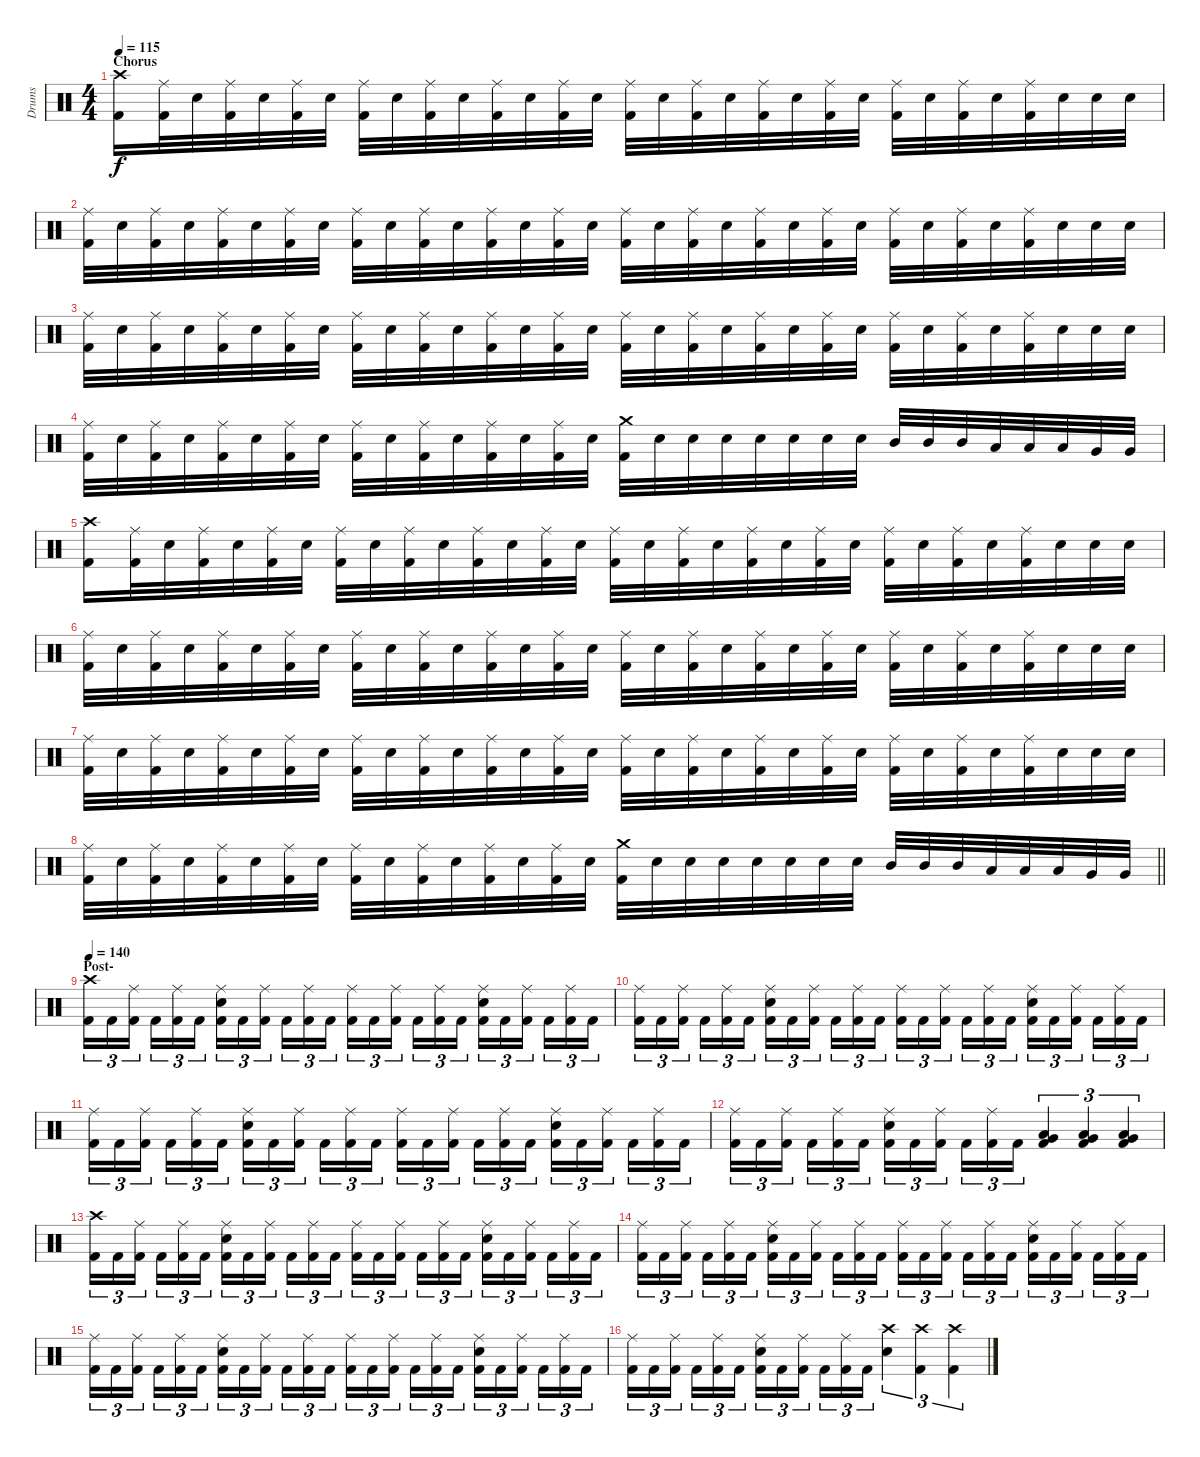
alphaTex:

\track ("Drums" "Drums") {instrument percussion}
\staff {score}
\articulation defaults
\ts (4 4)
\section ("" "Chorus")
\tempo 115
\clef neutral
\ks c
("Crash high (hit)" "Kick (hit) 2").16{dy f} ("Ride (middle)" "Kick (hit) 2").32 "Electric Snare (hit)".32 ("Ride (middle)" "Kick (hit) 2").32 "Electric Snare (hit)".32 ("Ride (middle)" "Kick (hit) 2").32 "Electric Snare (hit)".32 ("Ride (middle)" "Kick (hit) 2").32 "Electric Snare (hit)".32 ("Ride (middle)" "Kick (hit) 2").32 "Electric Snare (hit)".32 ("Ride (middle)" "Kick (hit) 2").32 "Electric Snare (hit)".32 ("Ride (middle)" "Kick (hit) 2").32 "Electric Snare (hit)".32 ("Ride (middle)" "Kick (hit) 2").32 "Electric Snare (hit)".32 ("Ride (middle)" "Kick (hit) 2").32 "Electric Snare (hit)".32 ("Ride (middle)" "Kick (hit) 2").32 "Electric Snare (hit)".32 ("Ride (middle)" "Kick (hit) 2").32 "Electric Snare (hit)".32 ("Ride (middle)" "Kick (hit) 2").32 "Electric Snare (hit)".32 ("Ride (middle)" "Kick (hit) 2").32 "Electric Snare (hit)".32 ("Ride (middle)" "Kick (hit) 2").32 "Electric Snare (hit)".32 "Electric Snare (hit)".32 "Electric Snare (hit)".32 |
("Ride (middle)" "Kick (hit) 2").32 "Electric Snare (hit)".32 ("Ride (middle)" "Kick (hit) 2").32 "Electric Snare (hit)".32 ("Ride (middle)" "Kick (hit) 2").32 "Electric Snare (hit)".32 ("Ride (middle)" "Kick (hit) 2").32 "Electric Snare (hit)".32 ("Ride (middle)" "Kick (hit) 2").32 "Electric Snare (hit)".32 ("Ride (middle)" "Kick (hit) 2").32 "Electric Snare (hit)".32 ("Ride (middle)" "Kick (hit) 2").32 "Electric Snare (hit)".32 ("Ride (middle)" "Kick (hit) 2").32 "Electric Snare (hit)".32 ("Ride (middle)" "Kick (hit) 2").32 "Electric Snare (hit)".32 ("Ride (middle)" "Kick (hit) 2").32 "Electric Snare (hit)".32 ("Ride (middle)" "Kick (hit) 2").32 "Electric Snare (hit)".32 ("Ride (middle)" "Kick (hit) 2").32 "Electric Snare (hit)".32 ("Ride (middle)" "Kick (hit) 2").32 "Electric Snare (hit)".32 ("Ride (middle)" "Kick (hit) 2").32 "Electric Snare (hit)".32 ("Ride (middle)" "Kick (hit) 2").32 "Electric Snare (hit)".32 "Electric Snare (hit)".32 "Electric Snare (hit)".32 |
("Ride (middle)" "Kick (hit) 2").32 "Electric Snare (hit)".32 ("Ride (middle)" "Kick (hit) 2").32 "Electric Snare (hit)".32 ("Ride (middle)" "Kick (hit) 2").32 "Electric Snare (hit)".32 ("Ride (middle)" "Kick (hit) 2").32 "Electric Snare (hit)".32 ("Ride (middle)" "Kick (hit) 2").32 "Electric Snare (hit)".32 ("Ride (middle)" "Kick (hit) 2").32 "Electric Snare (hit)".32 ("Ride (middle)" "Kick (hit) 2").32 "Electric Snare (hit)".32 ("Ride (middle)" "Kick (hit) 2").32 "Electric Snare (hit)".32 ("Ride (middle)" "Kick (hit) 2").32 "Electric Snare (hit)".32 ("Ride (middle)" "Kick (hit) 2").32 "Electric Snare (hit)".32 ("Ride (middle)" "Kick (hit) 2").32 "Electric Snare (hit)".32 ("Ride (middle)" "Kick (hit) 2").32 "Electric Snare (hit)".32 ("Ride (middle)" "Kick (hit) 2").32 "Electric Snare (hit)".32 ("Ride (middle)" "Kick (hit) 2").32 "Electric Snare (hit)".32 ("Ride (middle)" "Kick (hit) 2").32 "Electric Snare (hit)".32 "Electric Snare (hit)".32 "Electric Snare (hit)".32 |
("Ride (middle)" "Kick (hit) 2").32 "Electric Snare (hit)".32 ("Ride (middle)" "Kick (hit) 2").32 "Electric Snare (hit)".32 ("Ride (middle)" "Kick (hit) 2").32 "Electric Snare (hit)".32 ("Ride (middle)" "Kick (hit) 2").32 "Electric Snare (hit)".32 ("Ride (middle)" "Kick (hit) 2").32 "Electric Snare (hit)".32 ("Ride (middle)" "Kick (hit) 2").32 "Electric Snare (hit)".32 ("Ride (middle)" "Kick (hit) 2").32 "Electric Snare (hit)".32 ("Ride (middle)" "Kick (hit) 2").32 "Electric Snare (hit)".32 ("Crash medium (hit)" "Kick (hit) 2").32 "Electric Snare (hit)".32 "Electric Snare (hit)".32 "Electric Snare (hit)".32 "Electric Snare (hit)".32 "Electric Snare (hit)".32 "Electric Snare (hit)".32 "Electric Snare (hit)".32 "Mid Tom (hit)".32 "Mid Tom (hit)".32 "Mid Tom (hit)".32 "Low Tom (hit)".32 "Low Tom (hit)".32 "Low Tom (hit)".32 "Very Low Tom (hit)".32 "Very Low Tom (hit)".32 |
("Crash high (hit)" "Kick (hit) 2").16 ("Ride (middle)" "Kick (hit) 2").32 "Electric Snare (hit)".32 ("Ride (middle)" "Kick (hit) 2").32 "Electric Snare (hit)".32 ("Ride (middle)" "Kick (hit) 2").32 "Electric Snare (hit)".32 ("Ride (middle)" "Kick (hit) 2").32 "Electric Snare (hit)".32 ("Ride (middle)" "Kick (hit) 2").32 "Electric Snare (hit)".32 ("Ride (middle)" "Kick (hit) 2").32 "Electric Snare (hit)".32 ("Ride (middle)" "Kick (hit) 2").32 "Electric Snare (hit)".32 ("Ride (middle)" "Kick (hit) 2").32 "Electric Snare (hit)".32 ("Ride (middle)" "Kick (hit) 2").32 "Electric Snare (hit)".32 ("Ride (middle)" "Kick (hit) 2").32 "Electric Snare (hit)".32 ("Ride (middle)" "Kick (hit) 2").32 "Electric Snare (hit)".32 ("Ride (middle)" "Kick (hit) 2").32 "Electric Snare (hit)".32 ("Ride (middle)" "Kick (hit) 2").32 "Electric Snare (hit)".32 ("Ride (middle)" "Kick (hit) 2").32 "Electric Snare (hit)".32 "Electric Snare (hit)".32 "Electric Snare (hit)".32 |
("Ride (middle)" "Kick (hit) 2").32 "Electric Snare (hit)".32 ("Ride (middle)" "Kick (hit) 2").32 "Electric Snare (hit)".32 ("Ride (middle)" "Kick (hit) 2").32 "Electric Snare (hit)".32 ("Ride (middle)" "Kick (hit) 2").32 "Electric Snare (hit)".32 ("Ride (middle)" "Kick (hit) 2").32 "Electric Snare (hit)".32 ("Ride (middle)" "Kick (hit) 2").32 "Electric Snare (hit)".32 ("Ride (middle)" "Kick (hit) 2").32 "Electric Snare (hit)".32 ("Ride (middle)" "Kick (hit) 2").32 "Electric Snare (hit)".32 ("Ride (middle)" "Kick (hit) 2").32 "Electric Snare (hit)".32 ("Ride (middle)" "Kick (hit) 2").32 "Electric Snare (hit)".32 ("Ride (middle)" "Kick (hit) 2").32 "Electric Snare (hit)".32 ("Ride (middle)" "Kick (hit) 2").32 "Electric Snare (hit)".32 ("Ride (middle)" "Kick (hit) 2").32 "Electric Snare (hit)".32 ("Ride (middle)" "Kick (hit) 2").32 "Electric Snare (hit)".32 ("Ride (middle)" "Kick (hit) 2").32 "Electric Snare (hit)".32 "Electric Snare (hit)".32 "Electric Snare (hit)".32 |
("Ride (middle)" "Kick (hit) 2").32 "Electric Snare (hit)".32 ("Ride (middle)" "Kick (hit) 2").32 "Electric Snare (hit)".32 ("Ride (middle)" "Kick (hit) 2").32 "Electric Snare (hit)".32 ("Ride (middle)" "Kick (hit) 2").32 "Electric Snare (hit)".32 ("Ride (middle)" "Kick (hit) 2").32 "Electric Snare (hit)".32 ("Ride (middle)" "Kick (hit) 2").32 "Electric Snare (hit)".32 ("Ride (middle)" "Kick (hit) 2").32 "Electric Snare (hit)".32 ("Ride (middle)" "Kick (hit) 2").32 "Electric Snare (hit)".32 ("Ride (middle)" "Kick (hit) 2").32 "Electric Snare (hit)".32 ("Ride (middle)" "Kick (hit) 2").32 "Electric Snare (hit)".32 ("Ride (middle)" "Kick (hit) 2").32 "Electric Snare (hit)".32 ("Ride (middle)" "Kick (hit) 2").32 "Electric Snare (hit)".32 ("Ride (middle)" "Kick (hit) 2").32 "Electric Snare (hit)".32 ("Ride (middle)" "Kick (hit) 2").32 "Electric Snare (hit)".32 ("Ride (middle)" "Kick (hit) 2").32 "Electric Snare (hit)".32 "Electric Snare (hit)".32 "Electric Snare (hit)".32 |
\barLineRight lightlight
("Ride (middle)" "Kick (hit) 2").32 "Electric Snare (hit)".32 ("Ride (middle)" "Kick (hit) 2").32 "Electric Snare (hit)".32 ("Ride (middle)" "Kick (hit) 2").32 "Electric Snare (hit)".32 ("Ride (middle)" "Kick (hit) 2").32 "Electric Snare (hit)".32 ("Ride (middle)" "Kick (hit) 2").32 "Electric Snare (hit)".32 ("Ride (middle)" "Kick (hit) 2").32 "Electric Snare (hit)".32 ("Ride (middle)" "Kick (hit) 2").32 "Electric Snare (hit)".32 ("Ride (middle)" "Kick (hit) 2").32 "Electric Snare (hit)".32 ("Crash medium (hit)" "Kick (hit) 2").32 "Electric Snare (hit)".32 "Electric Snare (hit)".32 "Electric Snare (hit)".32 "Electric Snare (hit)".32 "Electric Snare (hit)".32 "Electric Snare (hit)".32 "Electric Snare (hit)".32 "Mid Tom (hit)".32 "Mid Tom (hit)".32 "Mid Tom (hit)".32 "Low Tom (hit)".32 "Low Tom (hit)".32 "Low Tom (hit)".32 "Very Low Tom (hit)".32 "Very Low Tom (hit)".32 |
\section ("" "Post-")
\tempo 140
("Crash high (hit)" "Kick (hit) 2").16{tu (3 2)} "Kick (hit) 2".16{tu (3 2)} ("Ride (middle)" "Kick (hit) 2").16{tu (3 2)} "Kick (hit) 2".16{tu (3 2)} ("Ride (middle)" "Kick (hit) 2").16{tu (3 2)} "Kick (hit) 2".16{tu (3 2)} ("Ride (middle)" "Electric Snare (hit)" "Kick (hit) 2").16{tu (3 2)} "Kick (hit) 2".16{tu (3 2)} ("Ride (middle)" "Kick (hit) 2").16{tu (3 2)} "Kick (hit) 2".16{tu (3 2)} ("Ride (middle)" "Kick (hit) 2").16{tu (3 2)} "Kick (hit) 2".16{tu (3 2)} ("Ride (middle)" "Kick (hit) 2").16{tu (3 2)} "Kick (hit) 2".16{tu (3 2)} ("Ride (middle)" "Kick (hit) 2").16{tu (3 2)} "Kick (hit) 2".16{tu (3 2)} ("Ride (middle)" "Kick (hit) 2").16{tu (3 2)} "Kick (hit) 2".16{tu (3 2)} ("Ride (middle)" "Electric Snare (hit)" "Kick (hit) 2").16{tu (3 2)} "Kick (hit) 2".16{tu (3 2)} ("Ride (middle)" "Kick (hit) 2").16{tu (3 2)} "Kick (hit) 2".16{tu (3 2)} ("Ride (middle)" "Kick (hit) 2").16{tu (3 2)} "Kick (hit) 2".16{tu (3 2)} |
("Ride (middle)" "Kick (hit) 2").16{tu (3 2)} "Kick (hit) 2".16{tu (3 2)} ("Ride (middle)" "Kick (hit) 2").16{tu (3 2)} "Kick (hit) 2".16{tu (3 2)} ("Ride (middle)" "Kick (hit) 2").16{tu (3 2)} "Kick (hit) 2".16{tu (3 2)} ("Ride (middle)" "Electric Snare (hit)" "Kick (hit) 2").16{tu (3 2)} "Kick (hit) 2".16{tu (3 2)} ("Ride (middle)" "Kick (hit) 2").16{tu (3 2)} "Kick (hit) 2".16{tu (3 2)} ("Ride (middle)" "Kick (hit) 2").16{tu (3 2)} "Kick (hit) 2".16{tu (3 2)} ("Ride (middle)" "Kick (hit) 2").16{tu (3 2)} "Kick (hit) 2".16{tu (3 2)} ("Ride (middle)" "Kick (hit) 2").16{tu (3 2)} "Kick (hit) 2".16{tu (3 2)} ("Ride (middle)" "Kick (hit) 2").16{tu (3 2)} "Kick (hit) 2".16{tu (3 2)} ("Ride (middle)" "Electric Snare (hit)" "Kick (hit) 2").16{tu (3 2)} "Kick (hit) 2".16{tu (3 2)} ("Ride (middle)" "Kick (hit) 2").16{tu (3 2)} "Kick (hit) 2".16{tu (3 2)} ("Ride (middle)" "Kick (hit) 2").16{tu (3 2)} "Kick (hit) 2".16{tu (3 2)} |
("Ride (middle)" "Kick (hit) 2").16{tu (3 2)} "Kick (hit) 2".16{tu (3 2)} ("Ride (middle)" "Kick (hit) 2").16{tu (3 2)} "Kick (hit) 2".16{tu (3 2)} ("Ride (middle)" "Kick (hit) 2").16{tu (3 2)} "Kick (hit) 2".16{tu (3 2)} ("Ride (middle)" "Electric Snare (hit)" "Kick (hit) 2").16{tu (3 2)} "Kick (hit) 2".16{tu (3 2)} ("Ride (middle)" "Kick (hit) 2").16{tu (3 2)} "Kick (hit) 2".16{tu (3 2)} ("Ride (middle)" "Kick (hit) 2").16{tu (3 2)} "Kick (hit) 2".16{tu (3 2)} ("Ride (middle)" "Kick (hit) 2").16{tu (3 2)} "Kick (hit) 2".16{tu (3 2)} ("Ride (middle)" "Kick (hit) 2").16{tu (3 2)} "Kick (hit) 2".16{tu (3 2)} ("Ride (middle)" "Kick (hit) 2").16{tu (3 2)} "Kick (hit) 2".16{tu (3 2)} ("Ride (middle)" "Electric Snare (hit)" "Kick (hit) 2").16{tu (3 2)} "Kick (hit) 2".16{tu (3 2)} ("Ride (middle)" "Kick (hit) 2").16{tu (3 2)} "Kick (hit) 2".16{tu (3 2)} ("Ride (middle)" "Kick (hit) 2").16{tu (3 2)} "Kick (hit) 2".16{tu (3 2)} |
("Ride (middle)" "Kick (hit) 2").16{tu (3 2)} "Kick (hit) 2".16{tu (3 2)} ("Ride (middle)" "Kick (hit) 2").16{tu (3 2)} "Kick (hit) 2".16{tu (3 2)} ("Ride (middle)" "Kick (hit) 2").16{tu (3 2)} "Kick (hit) 2".16{tu (3 2)} ("Ride (middle)" "Electric Snare (hit)" "Kick (hit) 2").16{tu (3 2)} "Kick (hit) 2".16{tu (3 2)} ("Ride (middle)" "Kick (hit) 2").16{tu (3 2)} "Kick (hit) 2".16{tu (3 2)} ("Ride (middle)" "Kick (hit) 2").16{tu (3 2)} "Kick (hit) 2".16{tu (3 2)} ("Very Low Tom (hit)" "Low Floor Tom (hit)" "Kick (hit) 2").4{tu (3 2)} ("Very Low Tom (hit)" "Low Floor Tom (hit)" "Kick (hit) 2").4{tu (3 2)} ("Very Low Tom (hit)" "Low Floor Tom (hit)" "Kick (hit) 2").4{tu (3 2)} |
("Crash high (hit)" "Kick (hit) 2").16{tu (3 2)} "Kick (hit) 2".16{tu (3 2)} ("Ride (middle)" "Kick (hit) 2").16{tu (3 2)} "Kick (hit) 2".16{tu (3 2)} ("Ride (middle)" "Kick (hit) 2").16{tu (3 2)} "Kick (hit) 2".16{tu (3 2)} ("Ride (middle)" "Electric Snare (hit)" "Kick (hit) 2").16{tu (3 2)} "Kick (hit) 2".16{tu (3 2)} ("Ride (middle)" "Kick (hit) 2").16{tu (3 2)} "Kick (hit) 2".16{tu (3 2)} ("Ride (middle)" "Kick (hit) 2").16{tu (3 2)} "Kick (hit) 2".16{tu (3 2)} ("Ride (middle)" "Kick (hit) 2").16{tu (3 2)} "Kick (hit) 2".16{tu (3 2)} ("Ride (middle)" "Kick (hit) 2").16{tu (3 2)} "Kick (hit) 2".16{tu (3 2)} ("Ride (middle)" "Kick (hit) 2").16{tu (3 2)} "Kick (hit) 2".16{tu (3 2)} ("Ride (middle)" "Electric Snare (hit)" "Kick (hit) 2").16{tu (3 2)} "Kick (hit) 2".16{tu (3 2)} ("Ride (middle)" "Kick (hit) 2").16{tu (3 2)} "Kick (hit) 2".16{tu (3 2)} ("Ride (middle)" "Kick (hit) 2").16{tu (3 2)} "Kick (hit) 2".16{tu (3 2)} |
("Ride (middle)" "Kick (hit) 2").16{tu (3 2)} "Kick (hit) 2".16{tu (3 2)} ("Ride (middle)" "Kick (hit) 2").16{tu (3 2)} "Kick (hit) 2".16{tu (3 2)} ("Ride (middle)" "Kick (hit) 2").16{tu (3 2)} "Kick (hit) 2".16{tu (3 2)} ("Ride (middle)" "Electric Snare (hit)" "Kick (hit) 2").16{tu (3 2)} "Kick (hit) 2".16{tu (3 2)} ("Ride (middle)" "Kick (hit) 2").16{tu (3 2)} "Kick (hit) 2".16{tu (3 2)} ("Ride (middle)" "Kick (hit) 2").16{tu (3 2)} "Kick (hit) 2".16{tu (3 2)} ("Ride (middle)" "Kick (hit) 2").16{tu (3 2)} "Kick (hit) 2".16{tu (3 2)} ("Ride (middle)" "Kick (hit) 2").16{tu (3 2)} "Kick (hit) 2".16{tu (3 2)} ("Ride (middle)" "Kick (hit) 2").16{tu (3 2)} "Kick (hit) 2".16{tu (3 2)} ("Ride (middle)" "Electric Snare (hit)" "Kick (hit) 2").16{tu (3 2)} "Kick (hit) 2".16{tu (3 2)} ("Ride (middle)" "Kick (hit) 2").16{tu (3 2)} "Kick (hit) 2".16{tu (3 2)} ("Ride (middle)" "Kick (hit) 2").16{tu (3 2)} "Kick (hit) 2".16{tu (3 2)} |
("Ride (middle)" "Kick (hit) 2").16{tu (3 2)} "Kick (hit) 2".16{tu (3 2)} ("Ride (middle)" "Kick (hit) 2").16{tu (3 2)} "Kick (hit) 2".16{tu (3 2)} ("Ride (middle)" "Kick (hit) 2").16{tu (3 2)} "Kick (hit) 2".16{tu (3 2)} ("Ride (middle)" "Electric Snare (hit)" "Kick (hit) 2").16{tu (3 2)} "Kick (hit) 2".16{tu (3 2)} ("Ride (middle)" "Kick (hit) 2").16{tu (3 2)} "Kick (hit) 2".16{tu (3 2)} ("Ride (middle)" "Kick (hit) 2").16{tu (3 2)} "Kick (hit) 2".16{tu (3 2)} ("Ride (middle)" "Kick (hit) 2").16{tu (3 2)} "Kick (hit) 2".16{tu (3 2)} ("Ride (middle)" "Kick (hit) 2").16{tu (3 2)} "Kick (hit) 2".16{tu (3 2)} ("Ride (middle)" "Kick (hit) 2").16{tu (3 2)} "Kick (hit) 2".16{tu (3 2)} ("Ride (middle)" "Electric Snare (hit)" "Kick (hit) 2").16{tu (3 2)} "Kick (hit) 2".16{tu (3 2)} ("Ride (middle)" "Kick (hit) 2").16{tu (3 2)} "Kick (hit) 2".16{tu (3 2)} ("Ride (middle)" "Kick (hit) 2").16{tu (3 2)} "Kick (hit) 2".16{tu (3 2)} |
("Ride (middle)" "Kick (hit) 2").16{tu (3 2)} "Kick (hit) 2".16{tu (3 2)} ("Ride (middle)" "Kick (hit) 2").16{tu (3 2)} "Kick (hit) 2".16{tu (3 2)} ("Ride (middle)" "Kick (hit) 2").16{tu (3 2)} "Kick (hit) 2".16{tu (3 2)} ("Ride (middle)" "Electric Snare (hit)" "Kick (hit) 2").16{tu (3 2)} "Kick (hit) 2".16{tu (3 2)} ("Ride (middle)" "Kick (hit) 2").16{tu (3 2)} "Kick (hit) 2".16{tu (3 2)} ("Ride (middle)" "Kick (hit) 2").16{tu (3 2)} "Kick (hit) 2".16{tu (3 2)} ("Crash high (hit)" "Electric Snare (hit)").4{tu (3 2)} ("Crash high (hit)" "Kick (hit) 2").4{tu (3 2)} ("Crash high (hit)" "Kick (hit) 2").4{tu (3 2)}
